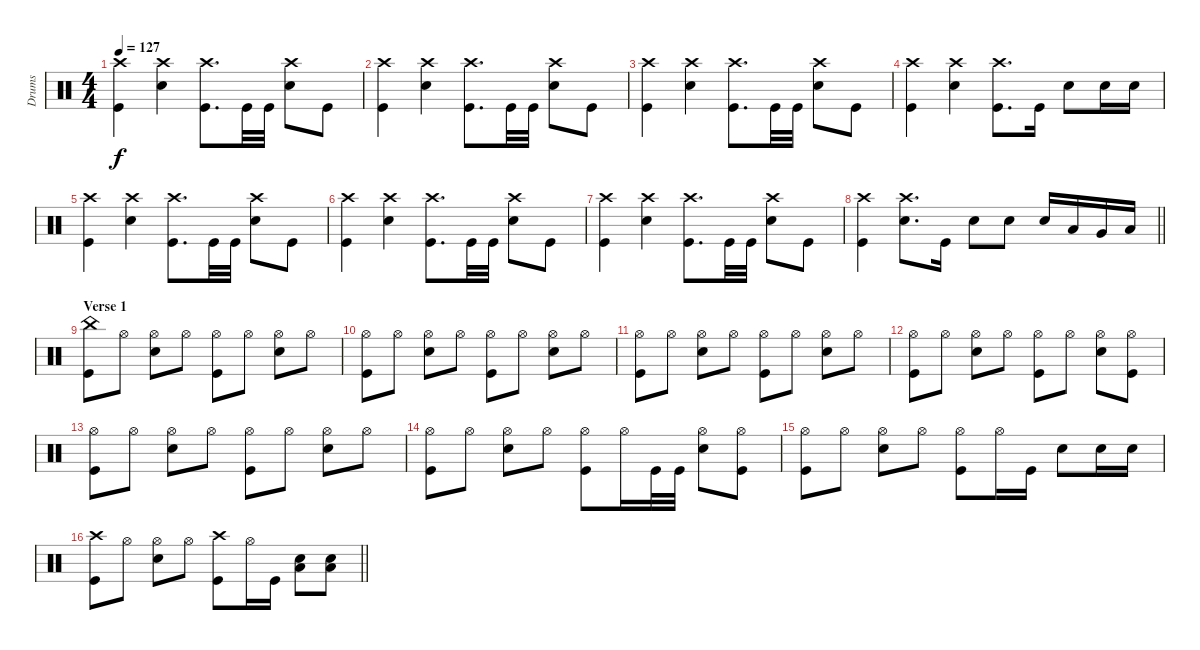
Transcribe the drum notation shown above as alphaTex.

\track ("Drums" "Drums") {instrument percussion}
\staff {score}
\articulation defaults
\ts (4 4)
\tempo 127
\clef neutral
\ks c
("Kick (hit)" "Crash high (hit)").4{dy f} ("Snare (hit) 2" "Crash high (hit)").4 ("Kick (hit)" "Crash high (hit)").8{d} "Kick (hit)".32 "Kick (hit)".32 ("Snare (hit) 2" "Crash high (hit)").8 "Kick (hit)".8 |
("Kick (hit)" "Crash high (hit)").4 ("Snare (hit) 2" "Crash high (hit)").4 ("Kick (hit)" "Crash high (hit)").8{d} "Kick (hit)".32 "Kick (hit)".32 ("Snare (hit) 2" "Crash high (hit)").8 "Kick (hit)".8 |
("Kick (hit)" "Crash high (hit)").4 ("Snare (hit) 2" "Crash high (hit)").4 ("Kick (hit)" "Crash high (hit)").8{d} "Kick (hit)".32 "Kick (hit)".32 ("Snare (hit) 2" "Crash high (hit)").8 "Kick (hit)".8 |
("Kick (hit)" "Crash high (hit)").4 ("Snare (hit) 2" "Crash high (hit)").4 ("Kick (hit)" "Crash high (hit)").8{d} "Kick (hit)".16 "Snare (hit) 2".8 "Snare (hit) 2".16 "Snare (hit) 2".16 |
("Kick (hit)" "Crash high (hit)").4 ("Snare (hit) 2" "Crash high (hit)").4 ("Kick (hit)" "Crash high (hit)").8{d} "Kick (hit)".32 "Kick (hit)".32 ("Snare (hit) 2" "Crash high (hit)").8 "Kick (hit)".8 |
("Kick (hit)" "Crash high (hit)").4 ("Snare (hit) 2" "Crash high (hit)").4 ("Kick (hit)" "Crash high (hit)").8{d} "Kick (hit)".32 "Kick (hit)".32 ("Snare (hit) 2" "Crash high (hit)").8 "Kick (hit)".8 |
("Kick (hit)" "Crash high (hit)").4 ("Snare (hit) 2" "Crash high (hit)").4 ("Kick (hit)" "Crash high (hit)").8{d} "Kick (hit)".32 "Kick (hit)".32 ("Snare (hit) 2" "Crash high (hit)").8 "Kick (hit)".8 |
\barLineRight lightlight
("Kick (hit)" "Crash high (hit)").4 ("Snare (hit) 2" "Crash high (hit)").8{d} "Kick (hit)".16 "Snare (hit) 2".8 "Snare (hit) 2".8 "Snare (hit) 2".16 "Low Tom (hit)".16 "Very Low Tom (hit)".16 "Low Floor Tom (hit)".16 |
\section ("" "Verse 1")
("China (hit)" "Kick (hit)").8 "Hi-Hat (open)".8 ("Snare (hit) 2" "Hi-Hat (open)").8 "Hi-Hat (open)".8 ("Kick (hit)" "Hi-Hat (open)").8 "Hi-Hat (open)".8 ("Snare (hit) 2" "Hi-Hat (open)").8 "Hi-Hat (open)".8 |
("Kick (hit)" "Hi-Hat (open)").8 "Hi-Hat (open)".8 ("Snare (hit) 2" "Hi-Hat (open)").8 "Hi-Hat (open)".8 ("Kick (hit)" "Hi-Hat (open)").8 "Hi-Hat (open)".8 ("Snare (hit) 2" "Hi-Hat (open)").8 "Hi-Hat (open)".8 |
("Kick (hit)" "Hi-Hat (open)").8 "Hi-Hat (open)".8 ("Snare (hit) 2" "Hi-Hat (open)").8 "Hi-Hat (open)".8 ("Kick (hit)" "Hi-Hat (open)").8 "Hi-Hat (open)".8 ("Snare (hit) 2" "Hi-Hat (open)").8 "Hi-Hat (open)".8 |
("Kick (hit)" "Hi-Hat (open)").8 "Hi-Hat (open)".8 ("Snare (hit) 2" "Hi-Hat (open)").8 "Hi-Hat (open)".8 ("Kick (hit)" "Hi-Hat (open)").8 "Hi-Hat (open)".8 ("Snare (hit) 2" "Hi-Hat (open)").8 ("Hi-Hat (open)" "Kick (hit)").8 |
("Kick (hit)" "Hi-Hat (open)").8 "Hi-Hat (open)".8 ("Snare (hit) 2" "Hi-Hat (open)").8 "Hi-Hat (open)".8 ("Kick (hit)" "Hi-Hat (open)").8 "Hi-Hat (open)".8 ("Snare (hit) 2" "Hi-Hat (open)").8 "Hi-Hat (open)".8 |
("Kick (hit)" "Hi-Hat (open)").8 "Hi-Hat (open)".8 ("Snare (hit) 2" "Hi-Hat (open)").8 "Hi-Hat (open)".8 ("Kick (hit)" "Hi-Hat (open)").8 "Hi-Hat (open)".16 "Kick (hit)".32 "Kick (hit)".32 ("Snare (hit) 2" "Hi-Hat (open)").8 ("Hi-Hat (open)" "Kick (hit)").8 |
("Kick (hit)" "Hi-Hat (open)").8 "Hi-Hat (open)".8 ("Snare (hit) 2" "Hi-Hat (open)").8 "Hi-Hat (open)".8 ("Kick (hit)" "Hi-Hat (open)").8 "Hi-Hat (open)".16 "Kick (hit)".16 "Snare (hit) 2".8 "Snare (hit) 2".16 "Snare (hit) 2".16 |
\barLineRight lightlight
("Kick (hit)" "Crash high (hit)").8 "Hi-Hat (open)".8 ("Snare (hit) 2" "Hi-Hat (open)").8 "Hi-Hat (open)".8 ("Kick (hit)" "Crash high (hit)").8 "Hi-Hat (open)".16 "Kick (hit)".16 ("Snare (hit) 2" "Low Tom (hit)").8 ("Snare (hit) 2" "Low Tom (hit)").8
